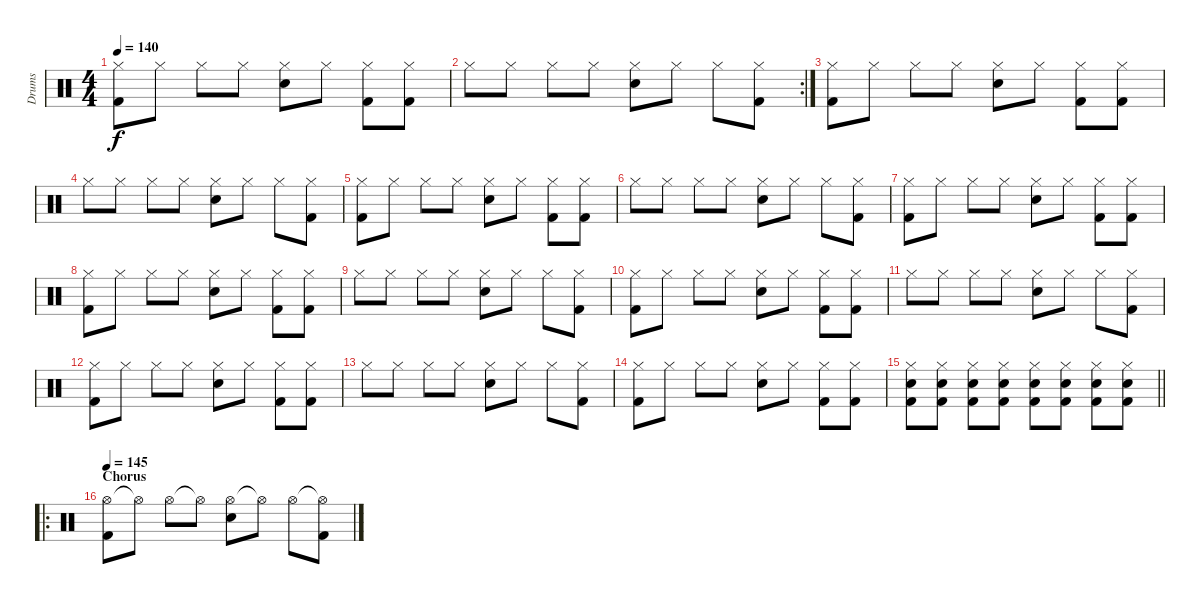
\track ("Drums" "Drums") {instrument percussion}
\staff {score}
\articulation defaults
\ts (4 4)
\tempo 140
\clef neutral
\ks c
("Hi-Hat (closed)" "Kick (hit) 2").8{dy f} "Hi-Hat (closed)".8 "Hi-Hat (closed)".8 "Hi-Hat (closed)".8 ("Hi-Hat (closed)" "Snare (hit) 2").8 "Hi-Hat (closed)".8 ("Hi-Hat (closed)" "Kick (hit) 2").8 ("Hi-Hat (closed)" "Kick (hit) 2").8 |
\rc 2 "Hi-Hat (closed)".8 "Hi-Hat (closed)".8 "Hi-Hat (closed)".8 "Hi-Hat (closed)".8
("Hi-Hat (closed)" "Snare (hit) 2").8 "Hi-Hat (closed)".8 "Hi-Hat (closed)".8 ("Hi-Hat (closed)" "Kick (hit) 2").8 |
("Hi-Hat (closed)" "Kick (hit) 2").8 "Hi-Hat (closed)".8 "Hi-Hat (closed)".8 "Hi-Hat (closed)".8 ("Hi-Hat (closed)" "Snare (hit) 2").8 "Hi-Hat (closed)".8 ("Hi-Hat (closed)" "Kick (hit) 2").8 ("Hi-Hat (closed)" "Kick (hit) 2").8 |
"Hi-Hat (closed)".8 "Hi-Hat (closed)".8 "Hi-Hat (closed)".8 "Hi-Hat (closed)".8 ("Hi-Hat (closed)" "Snare (hit) 2").8 "Hi-Hat (closed)".8 "Hi-Hat (closed)".8 ("Hi-Hat (closed)" "Kick (hit) 2").8 |
("Hi-Hat (closed)" "Kick (hit) 2").8 "Hi-Hat (closed)".8 "Hi-Hat (closed)".8 "Hi-Hat (closed)".8 ("Hi-Hat (closed)" "Snare (hit) 2").8 "Hi-Hat (closed)".8 ("Hi-Hat (closed)" "Kick (hit) 2").8 ("Hi-Hat (closed)" "Kick (hit) 2").8 |
"Hi-Hat (closed)".8 "Hi-Hat (closed)".8 "Hi-Hat (closed)".8 "Hi-Hat (closed)".8 ("Hi-Hat (closed)" "Snare (hit) 2").8 "Hi-Hat (closed)".8 "Hi-Hat (closed)".8 ("Hi-Hat (closed)" "Kick (hit) 2").8 |
("Hi-Hat (closed)" "Kick (hit) 2").8 "Hi-Hat (closed)".8 "Hi-Hat (closed)".8 "Hi-Hat (closed)".8 ("Hi-Hat (closed)" "Snare (hit) 2").8 "Hi-Hat (closed)".8 ("Hi-Hat (closed)" "Kick (hit) 2").8 ("Hi-Hat (closed)" "Kick (hit) 2").8 |
("Hi-Hat (closed)" "Kick (hit) 2").8 "Hi-Hat (closed)".8 "Hi-Hat (closed)".8 "Hi-Hat (closed)".8 ("Hi-Hat (closed)" "Snare (hit) 2").8 "Hi-Hat (closed)".8 ("Hi-Hat (closed)" "Kick (hit) 2").8 ("Hi-Hat (closed)" "Kick (hit) 2").8 |
"Hi-Hat (closed)".8 "Hi-Hat (closed)".8 "Hi-Hat (closed)".8 "Hi-Hat (closed)".8 ("Hi-Hat (closed)" "Snare (hit) 2").8 "Hi-Hat (closed)".8 "Hi-Hat (closed)".8 ("Hi-Hat (closed)" "Kick (hit) 2").8 |
("Hi-Hat (closed)" "Kick (hit) 2").8 "Hi-Hat (closed)".8 "Hi-Hat (closed)".8 "Hi-Hat (closed)".8 ("Hi-Hat (closed)" "Snare (hit) 2").8 "Hi-Hat (closed)".8 ("Hi-Hat (closed)" "Kick (hit) 2").8 ("Hi-Hat (closed)" "Kick (hit) 2").8 |
"Hi-Hat (closed)".8 "Hi-Hat (closed)".8 "Hi-Hat (closed)".8 "Hi-Hat (closed)".8 ("Hi-Hat (closed)" "Snare (hit) 2").8 "Hi-Hat (closed)".8 "Hi-Hat (closed)".8 ("Hi-Hat (closed)" "Kick (hit) 2").8 |
("Hi-Hat (closed)" "Kick (hit) 2").8 "Hi-Hat (closed)".8 "Hi-Hat (closed)".8 "Hi-Hat (closed)".8 ("Hi-Hat (closed)" "Snare (hit) 2").8 "Hi-Hat (closed)".8 ("Hi-Hat (closed)" "Kick (hit) 2").8 ("Hi-Hat (closed)" "Kick (hit) 2").8 |
"Hi-Hat (closed)".8 "Hi-Hat (closed)".8 "Hi-Hat (closed)".8 "Hi-Hat (closed)".8 ("Hi-Hat (closed)" "Snare (hit) 2").8 "Hi-Hat (closed)".8 "Hi-Hat (closed)".8 ("Hi-Hat (closed)" "Kick (hit) 2").8 |
("Hi-Hat (closed)" "Kick (hit) 2").8 "Hi-Hat (closed)".8 "Hi-Hat (closed)".8 "Hi-Hat (closed)".8 ("Hi-Hat (closed)" "Snare (hit) 2").8 "Hi-Hat (closed)".8 ("Hi-Hat (closed)" "Kick (hit) 2").8 ("Hi-Hat (closed)" "Kick (hit) 2").8 |
\barLineRight lightlight
("Hi-Hat (closed)" "Kick (hit) 2" "Snare (hit) 2").8 ("Hi-Hat (closed)" "Kick (hit) 2" "Snare (hit) 2").8 ("Hi-Hat (closed)" "Kick (hit) 2" "Snare (hit) 2").8 ("Hi-Hat (closed)" "Kick (hit) 2" "Snare (hit) 2").8 ("Hi-Hat (closed)" "Kick (hit) 2" "Snare (hit) 2").8 ("Hi-Hat (closed)" "Kick (hit) 2" "Snare (hit) 2").8 ("Hi-Hat (closed)" "Kick (hit) 2" "Snare (hit) 2").8 ("Hi-Hat (closed)" "Kick (hit) 2" "Snare (hit) 2").8 |
\ro
\section ("" "Chorus")
\tempo 145
("Hi-Hat (open)" "Kick (hit) 2").8 "Hi-Hat (open)"{t}.8 "Hi-Hat (open)".8 "Hi-Hat (open)"{t}.8 ("Hi-Hat (open)" "Snare (hit) 2").8 "Hi-Hat (open)"{t}.8 "Hi-Hat (open)".8 ("Hi-Hat (open)"{t} "Kick (hit) 2").8
